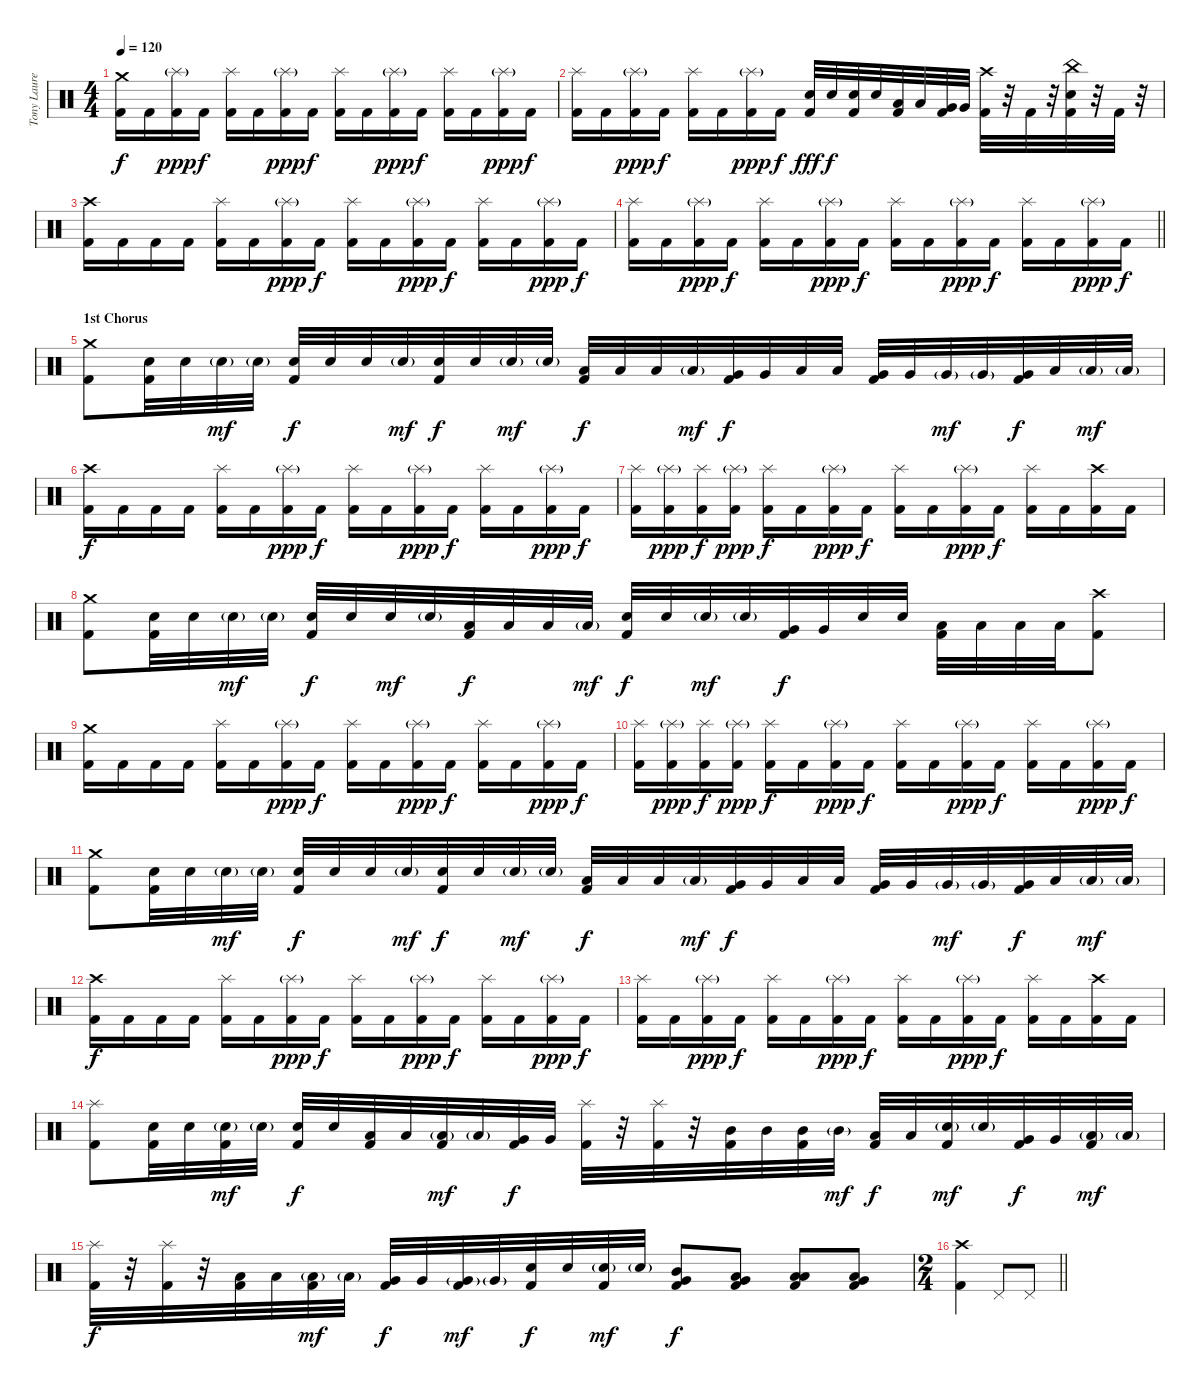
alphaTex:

\track ("Tony Laureano" "Tony Laure") {instrument percussion}
\staff {score}
\articulation defaults
\ts (4 4)
\tempo 120
\clef neutral
\ks c
("Crash medium (hit)" "Kick (hit) 2").16{dy f} "Kick (hit) 2".16 ("Splash (hit)"{g} "Kick (hit) 2").16{dy ppp} "Kick (hit) 2".16{dy f} ("Splash (hit)" "Kick (hit) 2").16 "Kick (hit) 2".16 ("Splash (hit)"{g} "Kick (hit) 2").16{dy ppp} "Kick (hit) 2".16{dy f} ("Splash (hit)" "Kick (hit) 2").16 "Kick (hit) 2".16 ("Splash (hit)"{g} "Kick (hit) 2").16{dy ppp} "Kick (hit) 2".16{dy f} ("Splash (hit)" "Kick (hit) 2").16 "Kick (hit) 2".16 ("Splash (hit)"{g} "Kick (hit) 2").16{dy ppp} "Kick (hit) 2".16{dy f} |
("Splash (hit)" "Kick (hit) 2").16 "Kick (hit) 2".16 ("Splash (hit)"{g} "Kick (hit) 2").16{dy ppp} "Kick (hit) 2".16{dy f} ("Splash (hit)" "Kick (hit) 2").16 "Kick (hit) 2".16 ("Splash (hit)"{g} "Kick (hit) 2").16{dy ppp} "Kick (hit) 2".16{dy f} ("Electric Snare (hit)" "Kick (hit) 2").32{dy fff} "Electric Snare (hit)".32{dy f} ("Electric Snare (hit)" "Kick (hit) 2").32 "Electric Snare (hit)".32 ("Low Tom (hit)" "Kick (hit) 2").32 "Low Tom (hit)".32 ("Very Low Tom (hit)" "Kick (hit) 2").32 "Very Low Tom (hit)".32 ("Crash high (hit)" "Kick (hit) 2").32 r.32 "Kick (hit) 2".32 r.32 ("China (hit)" "Electric Snare (hit)" "Kick (hit) 2").32 r.32 "Kick (hit) 2".32 r.32 |
("Crash high (hit)" "Kick (hit) 2").16 "Kick (hit) 2".16 "Kick (hit) 2".16 "Kick (hit) 2".16 ("Splash (hit)" "Kick (hit) 2").16 "Kick (hit) 2".16 ("Splash (hit)"{g} "Kick (hit) 2").16{dy ppp} "Kick (hit) 2".16{dy f} ("Splash (hit)" "Kick (hit) 2").16 "Kick (hit) 2".16 ("Splash (hit)"{g} "Kick (hit) 2").16{dy ppp} "Kick (hit) 2".16{dy f} ("Splash (hit)" "Kick (hit) 2").16 "Kick (hit) 2".16 ("Splash (hit)"{g} "Kick (hit) 2").16{dy ppp} "Kick (hit) 2".16{dy f} |
\barLineRight lightlight
("Splash (hit)" "Kick (hit) 2").16 "Kick (hit) 2".16 ("Splash (hit)"{g} "Kick (hit) 2").16{dy ppp} "Kick (hit) 2".16{dy f} ("Splash (hit)" "Kick (hit) 2").16 "Kick (hit) 2".16 ("Splash (hit)"{g} "Kick (hit) 2").16{dy ppp} "Kick (hit) 2".16{dy f} ("Splash (hit)" "Kick (hit) 2").16 "Kick (hit) 2".16 ("Splash (hit)"{g} "Kick (hit) 2").16{dy ppp} "Kick (hit) 2".16{dy f} ("Splash (hit)" "Kick (hit) 2").16 "Kick (hit) 2".16 ("Splash (hit)"{g} "Kick (hit) 2").16{dy ppp} "Kick (hit) 2".16{dy f} |
\section ("" "1st Chorus")
("Crash medium (hit)" "Kick (hit) 2").8 ("Electric Snare (hit)" "Kick (hit) 2").32 "Electric Snare (hit)".32 "Electric Snare (hit)"{g}.32{dy mf} "Electric Snare (hit)"{g}.32 ("Electric Snare (hit)" "Kick (hit) 2").32{dy f} "Electric Snare (hit)".32 "Electric Snare (hit)".32 "Electric Snare (hit)"{g}.32{dy mf} ("Electric Snare (hit)" "Kick (hit) 2").32{dy f} "Electric Snare (hit)".32 "Electric Snare (hit)"{g}.32{dy mf} "Electric Snare (hit)"{g}.32 ("Low Tom (hit)" "Kick (hit) 2").32{dy f} "Low Tom (hit)".32 "Low Tom (hit)".32 "Low Tom (hit)"{g}.32{dy mf} ("Very Low Tom (hit)" "Kick (hit) 2").32{dy f} "Very Low Tom (hit)".32 "Low Floor Tom (hit)".32 "Low Floor Tom (hit)".32 ("Very Low Tom (hit)" "Kick (hit) 2").32 "Very Low Tom (hit)".32 "Very Low Tom (hit)"{g}.32{dy mf} "Very Low Tom (hit)"{g}.32 ("Very Low Tom (hit)" "Kick (hit) 2").32{dy f} "Low Floor Tom (hit)".32 "Low Floor Tom (hit)"{g}.32{dy mf} "Low Floor Tom (hit)"{g}.32 |
("Crash high (hit)" "Kick (hit) 2").16{dy f} "Kick (hit) 2".16 "Kick (hit) 2".16 "Kick (hit) 2".16 ("Splash (hit)" "Kick (hit) 2").16 "Kick (hit) 2".16 ("Splash (hit)"{g} "Kick (hit) 2").16{dy ppp} "Kick (hit) 2".16{dy f} ("Splash (hit)" "Kick (hit) 2").16 "Kick (hit) 2".16 ("Splash (hit)"{g} "Kick (hit) 2").16{dy ppp} "Kick (hit) 2".16{dy f} ("Splash (hit)" "Kick (hit) 2").16 "Kick (hit) 2".16 ("Splash (hit)"{g} "Kick (hit) 2").16{dy ppp} "Kick (hit) 2".16{dy f} |
("Splash (hit)" "Kick (hit) 2").16 ("Splash (hit)"{g} "Kick (hit) 2").16{dy ppp} ("Splash (hit)" "Kick (hit) 2").16{dy f} ("Splash (hit)"{g} "Kick (hit) 2").16{dy ppp} ("Splash (hit)" "Kick (hit) 2").16{dy f} "Kick (hit) 2".16 ("Splash (hit)"{g} "Kick (hit) 2").16{dy ppp} "Kick (hit) 2".16{dy f} ("Splash (hit)" "Kick (hit) 2").16 "Kick (hit) 2".16 ("Splash (hit)"{g} "Kick (hit) 2").16{dy ppp} "Kick (hit) 2".16{dy f} ("Splash (hit)" "Kick (hit) 2").16 "Kick (hit) 2".16 ("Crash high (hit)" "Kick (hit) 2").16 "Kick (hit) 2".16 |
("Crash medium (hit)" "Kick (hit) 2").8 ("Electric Snare (hit)" "Kick (hit) 2").32 "Electric Snare (hit)".32 "Electric Snare (hit)"{g}.32{dy mf} "Electric Snare (hit)"{g}.32 ("Electric Snare (hit)" "Kick (hit) 2").32{dy f} "Electric Snare (hit)".32 "Electric Snare (hit)".32{dy mf} "Electric Snare (hit)"{g}.32 ("Low Tom (hit)" "Kick (hit) 2").32{dy f} "Low Tom (hit)".32 "Low Tom (hit)".32 "Low Tom (hit)"{g}.32{dy mf} ("Electric Snare (hit)" "Kick (hit) 2").32{dy f} "Electric Snare (hit)".32 "Electric Snare (hit)"{g}.32{dy mf} "Electric Snare (hit)"{g}.32 ("Very Low Tom (hit)" "Kick (hit) 2").32{dy f} "Very Low Tom (hit)".32 "Electric Snare (hit)".32 "Electric Snare (hit)".32 ("Low Floor Tom (hit)" "Kick (hit) 2").32 "Low Floor Tom (hit)".32 "Low Floor Tom (hit)".32 "Low Floor Tom (hit)".32 ("Crash high (hit)" "Kick (hit) 2").8 |
("Crash medium (hit)" "Kick (hit) 2").16 "Kick (hit) 2".16 "Kick (hit) 2".16 "Kick (hit) 2".16 ("Splash (hit)" "Kick (hit) 2").16 "Kick (hit) 2".16 ("Splash (hit)"{g} "Kick (hit) 2").16{dy ppp} "Kick (hit) 2".16{dy f} ("Splash (hit)" "Kick (hit) 2").16 "Kick (hit) 2".16 ("Splash (hit)"{g} "Kick (hit) 2").16{dy ppp} "Kick (hit) 2".16{dy f} ("Splash (hit)" "Kick (hit) 2").16 "Kick (hit) 2".16 ("Splash (hit)"{g} "Kick (hit) 2").16{dy ppp} "Kick (hit) 2".16{dy f} |
("Splash (hit)" "Kick (hit) 2").16 ("Splash (hit)"{g} "Kick (hit) 2").16{dy ppp} ("Splash (hit)" "Kick (hit) 2").16{dy f} ("Splash (hit)"{g} "Kick (hit) 2").16{dy ppp} ("Splash (hit)" "Kick (hit) 2").16{dy f} "Kick (hit) 2".16 ("Splash (hit)"{g} "Kick (hit) 2").16{dy ppp} "Kick (hit) 2".16{dy f} ("Splash (hit)" "Kick (hit) 2").16 "Kick (hit) 2".16 ("Splash (hit)"{g} "Kick (hit) 2").16{dy ppp} "Kick (hit) 2".16{dy f} ("Splash (hit)" "Kick (hit) 2").16 "Kick (hit) 2".16 ("Splash (hit)"{g} "Kick (hit) 2").16{dy ppp} "Kick (hit) 2".16{dy f} |
("Crash medium (hit)" "Kick (hit) 2").8 ("Electric Snare (hit)" "Kick (hit) 2").32 "Electric Snare (hit)".32 "Electric Snare (hit)"{g}.32{dy mf} "Electric Snare (hit)"{g}.32 ("Electric Snare (hit)" "Kick (hit) 2").32{dy f} "Electric Snare (hit)".32 "Electric Snare (hit)".32 "Electric Snare (hit)"{g}.32{dy mf} ("Electric Snare (hit)" "Kick (hit) 2").32{dy f} "Electric Snare (hit)".32 "Electric Snare (hit)"{g}.32{dy mf} "Electric Snare (hit)"{g}.32 ("Low Tom (hit)" "Kick (hit) 2").32{dy f} "Low Tom (hit)".32 "Low Tom (hit)".32 "Low Tom (hit)"{g}.32{dy mf} ("Very Low Tom (hit)" "Kick (hit) 2").32{dy f} "Very Low Tom (hit)".32 "Low Floor Tom (hit)".32 "Low Floor Tom (hit)".32 ("Very Low Tom (hit)" "Kick (hit) 2").32 "Very Low Tom (hit)".32 "Very Low Tom (hit)"{g}.32{dy mf} "Very Low Tom (hit)"{g}.32 ("Very Low Tom (hit)" "Kick (hit) 2").32{dy f} "Low Floor Tom (hit)".32 "Low Floor Tom (hit)"{g}.32{dy mf} "Low Floor Tom (hit)"{g}.32 |
("Crash high (hit)" "Kick (hit) 2").16{dy f} "Kick (hit) 2".16 "Kick (hit) 2".16 "Kick (hit) 2".16 ("Splash (hit)" "Kick (hit) 2").16 "Kick (hit) 2".16 ("Splash (hit)"{g} "Kick (hit) 2").16{dy ppp} "Kick (hit) 2".16{dy f} ("Splash (hit)" "Kick (hit) 2").16 "Kick (hit) 2".16 ("Splash (hit)"{g} "Kick (hit) 2").16{dy ppp} "Kick (hit) 2".16{dy f} ("Splash (hit)" "Kick (hit) 2").16 "Kick (hit) 2".16 ("Splash (hit)"{g} "Kick (hit) 2").16{dy ppp} "Kick (hit) 2".16{dy f} |
("Splash (hit)" "Kick (hit) 2").16 "Kick (hit) 2".16 ("Splash (hit)"{g} "Kick (hit) 2").16{dy ppp} "Kick (hit) 2".16{dy f} ("Splash (hit)" "Kick (hit) 2").16 "Kick (hit) 2".16 ("Splash (hit)"{g} "Kick (hit) 2").16{dy ppp} "Kick (hit) 2".16{dy f} ("Splash (hit)" "Kick (hit) 2").16 "Kick (hit) 2".16 ("Splash (hit)"{g} "Kick (hit) 2").16{dy ppp} "Kick (hit) 2".16{dy f} ("Splash (hit)" "Kick (hit) 2").16 "Kick (hit) 2".16 ("Crash high (hit)" "Kick (hit) 2").16 "Kick (hit) 2".16 |
("Splash (hit)" "Kick (hit) 2").8 ("Electric Snare (hit)" "Kick (hit) 2").32 "Electric Snare (hit)".32 ("Electric Snare (hit)"{g} "Kick (hit) 2").32{dy mf} "Electric Snare (hit)"{g}.32 ("Electric Snare (hit)" "Kick (hit) 2").32{dy f} "Electric Snare (hit)".32 ("Low Tom (hit)" "Kick (hit) 2").32 "Low Tom (hit)".32 ("Low Tom (hit)"{g} "Kick (hit) 2").32{dy mf} "Low Tom (hit)"{g}.32 ("Very Low Tom (hit)" "Kick (hit) 2").32{dy f} "Very Low Tom (hit)".32 ("Splash (hit)" "Kick (hit) 2").32 r.32 ("Splash (hit)" "Kick (hit) 2").32 r.32 ("Mid Tom (hit)" "Kick (hit) 2").32 "Mid Tom (hit)".32 ("Mid Tom (hit)" "Kick (hit) 2").32 "Mid Tom (hit)"{g}.32{dy mf} ("Low Tom (hit)" "Kick (hit) 2").32{dy f} "Low Tom (hit)".32 ("Electric Snare (hit)"{g} "Kick (hit) 2").32{dy mf} "Electric Snare (hit)"{g}.32 ("Very Low Tom (hit)" "Kick (hit) 2").32{dy f} "Very Low Tom (hit)".32 ("Low Floor Tom (hit)"{g} "Kick (hit) 2").32{dy mf} "Low Floor Tom (hit)"{g}.32 |
("Splash (hit)" "Kick (hit) 2").32{dy f} r.32 ("Splash (hit)" "Kick (hit) 2").32 r.32 ("Low Tom (hit)" "Kick (hit) 2").32 "Low Tom (hit)".32 ("Low Tom (hit)"{g} "Kick (hit) 2").32{dy mf} "Low Tom (hit)"{g}.32 ("Very Low Tom (hit)" "Kick (hit) 2").32{dy f} "Very Low Tom (hit)".32 ("Very Low Tom (hit)"{g} "Kick (hit) 2").32{dy mf} "Very Low Tom (hit)"{g}.32 ("Electric Snare (hit)" "Kick (hit) 2").32{dy f} "Electric Snare (hit)".32 ("Electric Snare (hit)"{g} "Kick (hit) 2").32{dy mf} "Electric Snare (hit)"{g}.32 ("Mid Tom (hit)" "Very Low Tom (hit)" "Kick (hit) 2").8{dy f} ("Low Tom (hit)" "Very Low Tom (hit)" "Kick (hit) 2").8 ("Low Tom (hit)" "Low Floor Tom (hit)" "Kick (hit) 2").8 ("Very Low Tom (hit)" "Low Floor Tom (hit)" "Kick (hit) 2").8 |
\ts (2 4)
\barLineRight lightlight
("Crash high (hit)" "Kick (hit) 2").4 "Pedal Hi-Hat (hit)".8 "Pedal Hi-Hat (hit)".8
